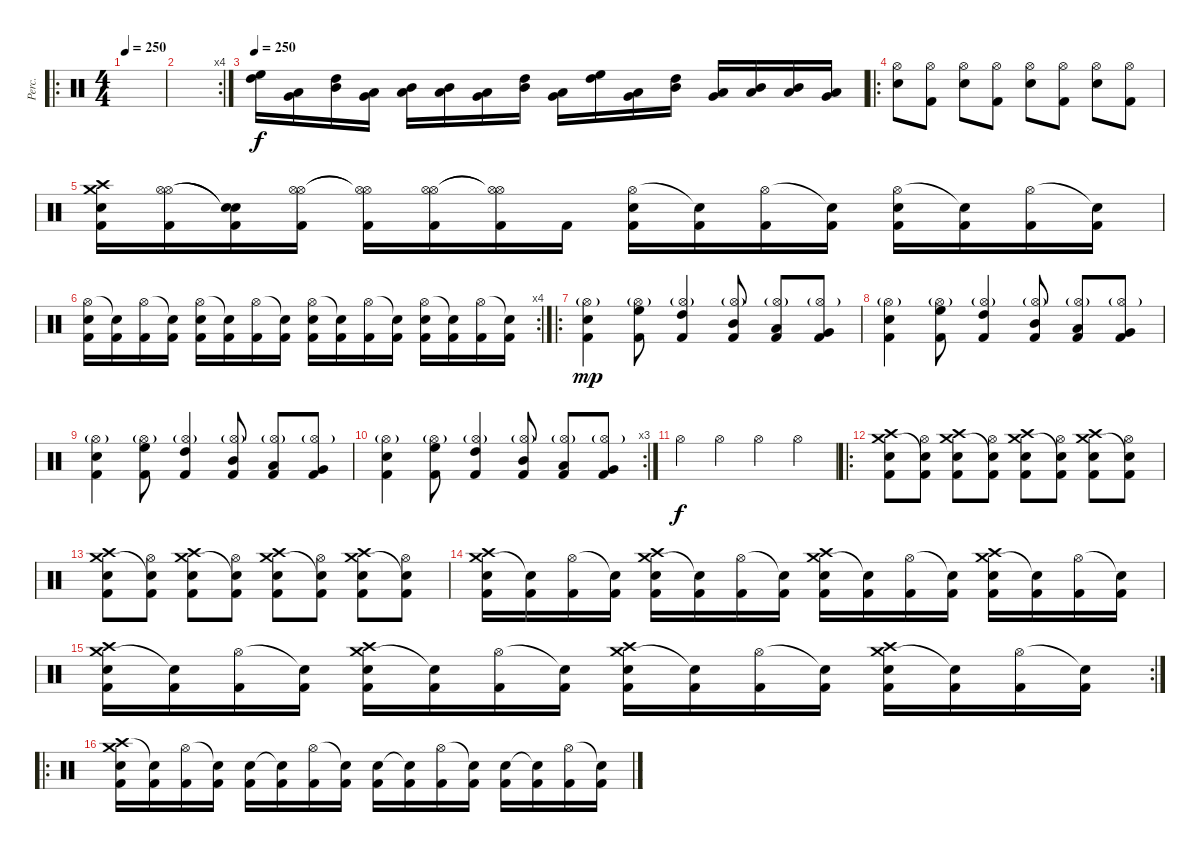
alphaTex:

\track ("Perc." "Perc.") {instrument percussion}
\staff {score}
\articulation defaults
\ro
\ts (4 4)
\tempo 250
\tempo 130
\tempo 250
\clef neutral
\ks c
|
\rc 4
|
\tempo 250
("High Floor Tom (hit)" "High Tom (hit)").16 ("Very Low Tom (hit)" "Low Floor Tom (hit)").16 ("High Tom (hit)" "Mid Tom (hit)").16 ("Low Tom (hit)" "Very Low Tom (hit)").16 ("Mid Tom (hit)" "Low Tom (hit)").16 ("Mid Tom (hit)" "Low Tom (hit)").16 ("Low Tom (hit)" "Very Low Tom (hit)").16 ("High Tom (hit)" "Mid Tom (hit)").16 ("Very Low Tom (hit)" "Low Floor Tom (hit)").16 ("High Floor Tom (hit)" "High Tom (hit)").16 ("Very Low Tom (hit)" "Low Floor Tom (hit)").16 ("High Tom (hit)" "Mid Tom (hit)").16 ("Low Tom (hit)" "Very Low Tom (hit)").16 ("Mid Tom (hit)" "Low Tom (hit)").16 ("Mid Tom (hit)" "Low Tom (hit)").16 ("Low Tom (hit)" "Very Low Tom (hit)").16 |
\ro
("Hi-Hat (open)" "Snare (hit) 2").8 ("Hi-Hat (open)" "Kick (hit) 2").8 ("Hi-Hat (open)" "Snare (hit) 2").8 ("Hi-Hat (open)" "Kick (hit) 2").8 ("Hi-Hat (open)" "Snare (hit) 2").8 ("Hi-Hat (open)" "Kick (hit) 2").8 ("Hi-Hat (open)" "Snare (hit) 2").8 ("Hi-Hat (open)" "Kick (hit) 2").8 |
("Crash high (hit)" "Crash medium (hit)" "Snare (hit) 2" "Kick (hit) 2").16 ("Hi-Hat (open)" "Hi-Hat (open)" "Kick (hit) 2").16 ("Snare (hit)"{t} "Snare (hit)"{t} "Kick (hit) 2").16 ("Hi-Hat (open)" "Hi-Hat (open)" "Kick (hit) 2").16 ("Hi-Hat (open)"{t} "Hi-Hat (open)"{t} "Kick (hit) 2").16 ("Hi-Hat (open)" "Hi-Hat (open)" "Kick (hit) 2").16 ("Hi-Hat (open)"{t} "Hi-Hat (open)"{t} "Kick (hit) 2").16 "Kick (hit) 2".16 ("Hi-Hat (open)" "Snare (hit) 2" "Kick (hit) 2").16 ("Snare (hit)"{t} "Kick (hit) 2").16 ("Hi-Hat (open)" "Kick (hit) 2").16 ("Snare (hit)"{t} "Kick (hit) 2").16 ("Hi-Hat (open)" "Snare (hit) 2" "Kick (hit) 2").16 ("Snare (hit)"{t} "Kick (hit) 2").16 ("Hi-Hat (open)" "Kick (hit) 2").16 ("Snare (hit)"{t} "Kick (hit) 2").16 |
\rc 4
("Hi-Hat (open)" "Snare (hit) 2" "Kick (hit) 2").16 ("Snare (hit)"{t} "Kick (hit) 2").16 ("Hi-Hat (open)" "Kick (hit) 2").16 ("Snare (hit)"{t} "Kick (hit) 2").16 ("Hi-Hat (open)" "Snare (hit) 2" "Kick (hit) 2").16 ("Snare (hit)"{t} "Kick (hit) 2").16 ("Hi-Hat (open)" "Kick (hit) 2").16 ("Snare (hit)"{t} "Kick (hit) 2").16 ("Hi-Hat (open)" "Snare (hit) 2" "Kick (hit) 2").16 ("Snare (hit)"{t} "Kick (hit) 2").16 ("Hi-Hat (open)" "Kick (hit) 2").16 ("Snare (hit)"{t} "Kick (hit) 2").16 ("Hi-Hat (open)" "Snare (hit) 2" "Kick (hit) 2").16 ("Snare (hit)"{t} "Kick (hit) 2").16 ("Hi-Hat (open)" "Kick (hit) 2").16 ("Snare (hit)"{t} "Kick (hit) 2").16 |
\ro
("Hi-Hat (open)"{g} "Snare (hit) 2" "Kick (hit) 2").4{dy mp} ("Hi-Hat (open)"{g} "High Floor Tom (hit)" "Kick (hit) 2").8 ("Hi-Hat (open)"{g} "High Tom (hit)" "Kick (hit) 2").4 ("Hi-Hat (open)"{g} "Mid Tom (hit)" "Kick (hit) 2").8 ("Hi-Hat (open)"{g} "Low Tom (hit)" "Kick (hit) 2").8 ("Hi-Hat (open)"{g} "Very Low Tom (hit)" "Kick (hit) 2").8 |
("Hi-Hat (open)"{g} "Snare (hit) 2" "Kick (hit) 2").4 ("Hi-Hat (open)"{g} "High Floor Tom (hit)" "Kick (hit) 2").8 ("Hi-Hat (open)"{g} "High Tom (hit)" "Kick (hit) 2").4 ("Hi-Hat (open)"{g} "Mid Tom (hit)" "Kick (hit) 2").8 ("Hi-Hat (open)"{g} "Low Tom (hit)" "Kick (hit) 2").8 ("Hi-Hat (open)"{g} "Very Low Tom (hit)" "Kick (hit) 2").8 |
("Hi-Hat (open)"{g} "Snare (hit) 2" "Kick (hit) 2").4 ("Hi-Hat (open)"{g} "High Floor Tom (hit)" "Kick (hit) 2").8 ("Hi-Hat (open)"{g} "High Tom (hit)" "Kick (hit) 2").4 ("Hi-Hat (open)"{g} "Mid Tom (hit)" "Kick (hit) 2").8 ("Hi-Hat (open)"{g} "Low Tom (hit)" "Kick (hit) 2").8 ("Hi-Hat (open)"{g} "Very Low Tom (hit)" "Kick (hit) 2").8 |
\rc 3
("Hi-Hat (open)"{g} "Snare (hit) 2" "Kick (hit) 2").4 ("Hi-Hat (open)"{g} "High Floor Tom (hit)" "Kick (hit) 2").8 ("Hi-Hat (open)"{g} "High Tom (hit)" "Kick (hit) 2").4 ("Hi-Hat (open)"{g} "Mid Tom (hit)" "Kick (hit) 2").8 ("Hi-Hat (open)"{g} "Low Tom (hit)" "Kick (hit) 2").8 ("Hi-Hat (open)"{g} "Very Low Tom (hit)" "Kick (hit) 2").8 |
"Hi-Hat (open)".4{dy f} "Hi-Hat (open)".4 "Hi-Hat (open)".4 "Hi-Hat (open)".4 |
\ro
("Crash high (hit)" "Crash medium (hit)" "Snare (hit) 2" "Kick (hit) 2").8 ("Hi-Hat (open)" "Snare (hit)"{t} "Kick (hit) 2").8 ("Crash high (hit)" "Crash medium (hit)" "Snare (hit) 2" "Kick (hit) 2").8 ("Hi-Hat (open)" "Snare (hit)"{t} "Kick (hit) 2").8 ("Crash high (hit)" "Crash medium (hit)" "Snare (hit) 2" "Kick (hit) 2").8 ("Hi-Hat (open)" "Snare (hit)"{t} "Kick (hit) 2").8 ("Crash high (hit)" "Crash medium (hit)" "Snare (hit) 2" "Kick (hit) 2").8 ("Hi-Hat (open)" "Snare (hit)"{t} "Kick (hit) 2").8 |
("Crash high (hit)" "Crash medium (hit)" "Snare (hit) 2" "Kick (hit) 2").8 ("Hi-Hat (open)" "Snare (hit)"{t} "Kick (hit) 2").8 ("Crash high (hit)" "Crash medium (hit)" "Snare (hit) 2" "Kick (hit) 2").8 ("Hi-Hat (open)" "Snare (hit)"{t} "Kick (hit) 2").8 ("Crash high (hit)" "Crash medium (hit)" "Snare (hit) 2" "Kick (hit) 2").8 ("Hi-Hat (open)" "Snare (hit)"{t} "Kick (hit) 2").8 ("Crash high (hit)" "Crash medium (hit)" "Snare (hit) 2" "Kick (hit) 2").8 ("Hi-Hat (open)" "Snare (hit)"{t} "Kick (hit) 2").8 |
("Crash medium (hit)" "Crash high (hit)" "Snare (hit) 2" "Kick (hit) 2").16 ("Snare (hit)"{t} "Kick (hit) 2").16 ("Hi-Hat (open)" "Kick (hit) 2").16 ("Snare (hit)"{t} "Kick (hit) 2").16 ("Crash medium (hit)" "Crash high (hit)" "Snare (hit) 2" "Kick (hit) 2").16 ("Snare (hit)"{t} "Kick (hit) 2").16 ("Hi-Hat (open)" "Kick (hit) 2").16 ("Snare (hit)"{t} "Kick (hit) 2").16 ("Crash medium (hit)" "Crash high (hit)" "Snare (hit) 2" "Kick (hit) 2").16 ("Snare (hit)"{t} "Kick (hit) 2").16 ("Hi-Hat (open)" "Kick (hit) 2").16 ("Snare (hit)"{t} "Kick (hit) 2").16 ("Crash medium (hit)" "Crash high (hit)" "Snare (hit) 2" "Kick (hit) 2").16 ("Snare (hit)"{t} "Kick (hit) 2").16 ("Hi-Hat (open)" "Kick (hit) 2").16 ("Snare (hit)"{t} "Kick (hit) 2").16 |
\rc 2
("Crash medium (hit)" "Crash high (hit)" "Snare (hit) 2" "Kick (hit) 2").16 ("Snare (hit)"{t} "Kick (hit) 2").16 ("Hi-Hat (open)" "Kick (hit) 2").16 ("Snare (hit)"{t} "Kick (hit) 2").16 ("Crash medium (hit)" "Crash high (hit)" "Snare (hit) 2" "Kick (hit) 2").16 ("Snare (hit)"{t} "Kick (hit) 2").16 ("Hi-Hat (open)" "Kick (hit) 2").16 ("Snare (hit)"{t} "Kick (hit) 2").16 ("Crash medium (hit)" "Crash high (hit)" "Snare (hit) 2" "Kick (hit) 2").16 ("Snare (hit)"{t} "Kick (hit) 2").16 ("Hi-Hat (open)" "Kick (hit) 2").16 ("Snare (hit)"{t} "Kick (hit) 2").16 ("Crash medium (hit)" "Crash high (hit)" "Snare (hit) 2" "Kick (hit) 2").16 ("Snare (hit)"{t} "Kick (hit) 2").16 ("Hi-Hat (open)" "Kick (hit) 2").16 ("Snare (hit)"{t} "Kick (hit) 2").16 |
\ro
("Crash high (hit)" "Crash medium (hit)" "Snare (hit) 2" "Kick (hit) 2").16 ("Snare (hit)"{t} "Kick (hit) 2").16 ("Hi-Hat (open)" "Kick (hit) 2").16 ("Snare (hit)"{t} "Kick (hit) 2").16 ("Snare (hit) 2" "Kick (hit) 2").16 ("Snare (hit)"{t} "Kick (hit) 2").16 ("Hi-Hat (open)" "Kick (hit) 2").16 ("Snare (hit)"{t} "Kick (hit) 2").16 ("Snare (hit) 2" "Kick (hit) 2").16 ("Snare (hit)"{t} "Kick (hit) 2").16 ("Hi-Hat (open)" "Kick (hit) 2").16 ("Snare (hit)"{t} "Kick (hit) 2").16 ("Snare (hit) 2" "Kick (hit) 2").16 ("Snare (hit)"{t} "Kick (hit) 2").16 ("Hi-Hat (open)" "Kick (hit) 2").16 ("Snare (hit)"{t} "Kick (hit) 2").16
